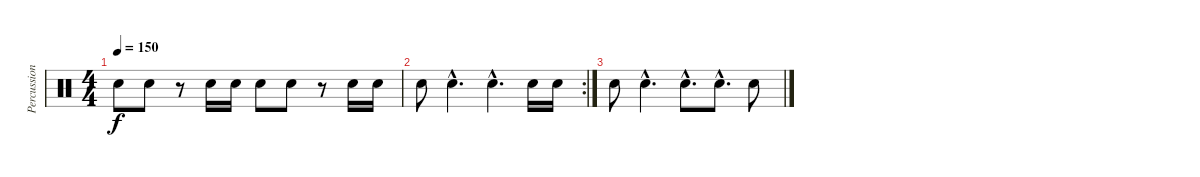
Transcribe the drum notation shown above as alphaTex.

\track ("Percussion" "Percussion") {instrument percussion}
\staff {score}
\articulation defaults
\ts (4 4)
\tempo 150
\clef neutral
\ks c "Snare (hit) 2".8{dy f} "Snare (hit) 2".8
r.8 "Snare (hit) 2".16 "Snare (hit) 2".16 "Snare (hit) 2".8 "Snare (hit) 2".8 r.8 "Snare (hit) 2".16 "Snare (hit) 2".16 |
\rc 2 "Snare (hit) 2".8 "Snare (hit) 2"{hac}.4{d} "Snare (hit) 2"{hac}.4{d} "Snare (hit) 2".16 "Snare (hit) 2".16
|
"Snare (hit) 2".8 "Snare (hit) 2"{hac}.4{d} "Snare (hit) 2"{hac}.8{d} "Snare (hit) 2"{hac}.8{d} "Snare (hit) 2".8
